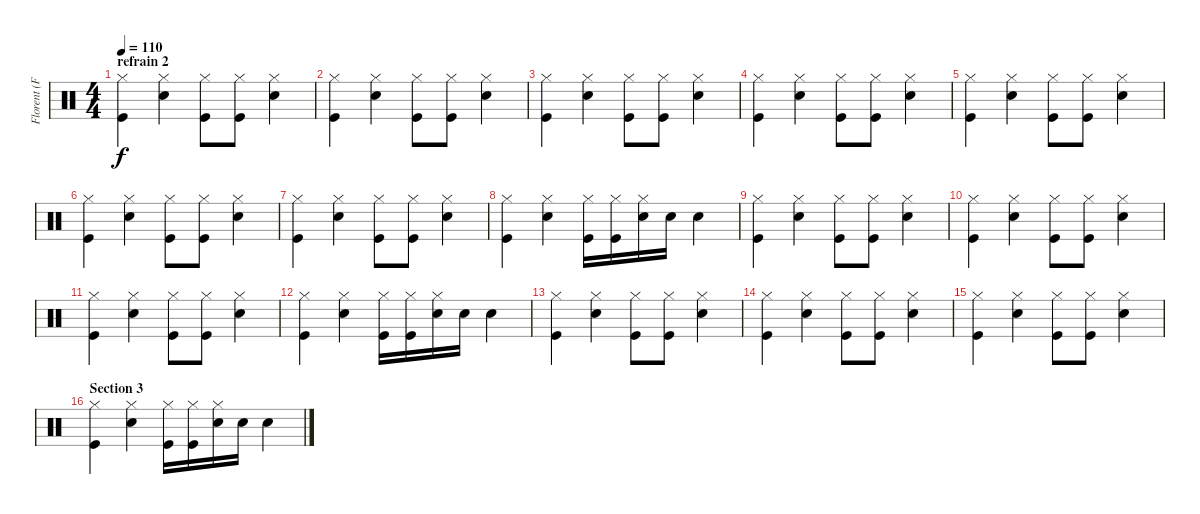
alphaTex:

\track ("Florent (Fûts)" "Florent (F") {instrument percussion}
\staff {score}
\articulation defaults
\ts (4 4)
\section ("" "refrain 2")
\tempo 110
\clef neutral
\ks c
("Kick (hit)" "Hi-Hat (closed)").4{dy f} ("Snare (hit) 2" "Hi-Hat (closed)").4 ("Kick (hit)" "Hi-Hat (closed)").8 ("Kick (hit)" "Hi-Hat (closed)").8 ("Snare (hit) 2" "Hi-Hat (closed)").4 |
("Kick (hit)" "Hi-Hat (closed)").4 ("Snare (hit) 2" "Hi-Hat (closed)").4 ("Kick (hit)" "Hi-Hat (closed)").8 ("Kick (hit)" "Hi-Hat (closed)").8 ("Snare (hit) 2" "Hi-Hat (closed)").4 |
("Kick (hit)" "Hi-Hat (closed)").4 ("Snare (hit) 2" "Hi-Hat (closed)").4 ("Kick (hit)" "Hi-Hat (closed)").8 ("Kick (hit)" "Hi-Hat (closed)").8 ("Snare (hit) 2" "Hi-Hat (closed)").4 |
("Kick (hit)" "Hi-Hat (closed)").4 ("Snare (hit) 2" "Hi-Hat (closed)").4 ("Kick (hit)" "Hi-Hat (closed)").8 ("Kick (hit)" "Hi-Hat (closed)").8 ("Snare (hit) 2" "Hi-Hat (closed)").4 |
("Kick (hit)" "Hi-Hat (closed)").4 ("Snare (hit) 2" "Hi-Hat (closed)").4 ("Kick (hit)" "Hi-Hat (closed)").8 ("Kick (hit)" "Hi-Hat (closed)").8 ("Snare (hit) 2" "Hi-Hat (closed)").4 |
("Kick (hit)" "Hi-Hat (closed)").4 ("Snare (hit) 2" "Hi-Hat (closed)").4 ("Kick (hit)" "Hi-Hat (closed)").8 ("Kick (hit)" "Hi-Hat (closed)").8 ("Snare (hit) 2" "Hi-Hat (closed)").4 |
("Kick (hit)" "Hi-Hat (closed)").4 ("Snare (hit) 2" "Hi-Hat (closed)").4 ("Kick (hit)" "Hi-Hat (closed)").8 ("Kick (hit)" "Hi-Hat (closed)").8 ("Snare (hit) 2" "Hi-Hat (closed)").4 |
("Kick (hit)" "Hi-Hat (closed)").4 ("Snare (hit) 2" "Hi-Hat (closed)").4 ("Kick (hit)" "Hi-Hat (closed)").16 ("Kick (hit)" "Hi-Hat (closed)").16 ("Snare (hit) 2" "Hi-Hat (closed)").16 "Snare (hit) 2".16 "Snare (hit) 2".4 |
("Kick (hit)" "Hi-Hat (closed)").4 ("Snare (hit) 2" "Hi-Hat (closed)").4 ("Kick (hit)" "Hi-Hat (closed)").8 ("Kick (hit)" "Hi-Hat (closed)").8 ("Snare (hit) 2" "Hi-Hat (closed)").4 |
("Kick (hit)" "Hi-Hat (closed)").4 ("Snare (hit) 2" "Hi-Hat (closed)").4 ("Kick (hit)" "Hi-Hat (closed)").8 ("Kick (hit)" "Hi-Hat (closed)").8 ("Snare (hit) 2" "Hi-Hat (closed)").4 |
("Kick (hit)" "Hi-Hat (closed)").4 ("Snare (hit) 2" "Hi-Hat (closed)").4 ("Kick (hit)" "Hi-Hat (closed)").8 ("Kick (hit)" "Hi-Hat (closed)").8 ("Snare (hit) 2" "Hi-Hat (closed)").4 |
("Kick (hit)" "Hi-Hat (closed)").4 ("Snare (hit) 2" "Hi-Hat (closed)").4 ("Kick (hit)" "Hi-Hat (closed)").16 ("Kick (hit)" "Hi-Hat (closed)").16 ("Snare (hit) 2" "Hi-Hat (closed)").16 "Snare (hit) 2".16 "Snare (hit) 2".4 |
("Kick (hit)" "Hi-Hat (closed)").4 ("Snare (hit) 2" "Hi-Hat (closed)").4 ("Kick (hit)" "Hi-Hat (closed)").8 ("Kick (hit)" "Hi-Hat (closed)").8 ("Snare (hit) 2" "Hi-Hat (closed)").4 |
("Kick (hit)" "Hi-Hat (closed)").4 ("Snare (hit) 2" "Hi-Hat (closed)").4 ("Kick (hit)" "Hi-Hat (closed)").8 ("Kick (hit)" "Hi-Hat (closed)").8 ("Snare (hit) 2" "Hi-Hat (closed)").4 |
("Kick (hit)" "Hi-Hat (closed)").4 ("Snare (hit) 2" "Hi-Hat (closed)").4 ("Kick (hit)" "Hi-Hat (closed)").8 ("Kick (hit)" "Hi-Hat (closed)").8 ("Snare (hit) 2" "Hi-Hat (closed)").4 |
\section ("" "Section 3")
("Kick (hit)" "Hi-Hat (closed)").4 ("Snare (hit) 2" "Hi-Hat (closed)").4 ("Kick (hit)" "Hi-Hat (closed)").16 ("Kick (hit)" "Hi-Hat (closed)").16 ("Snare (hit) 2" "Hi-Hat (closed)").16 "Snare (hit) 2".16 "Snare (hit) 2".4
